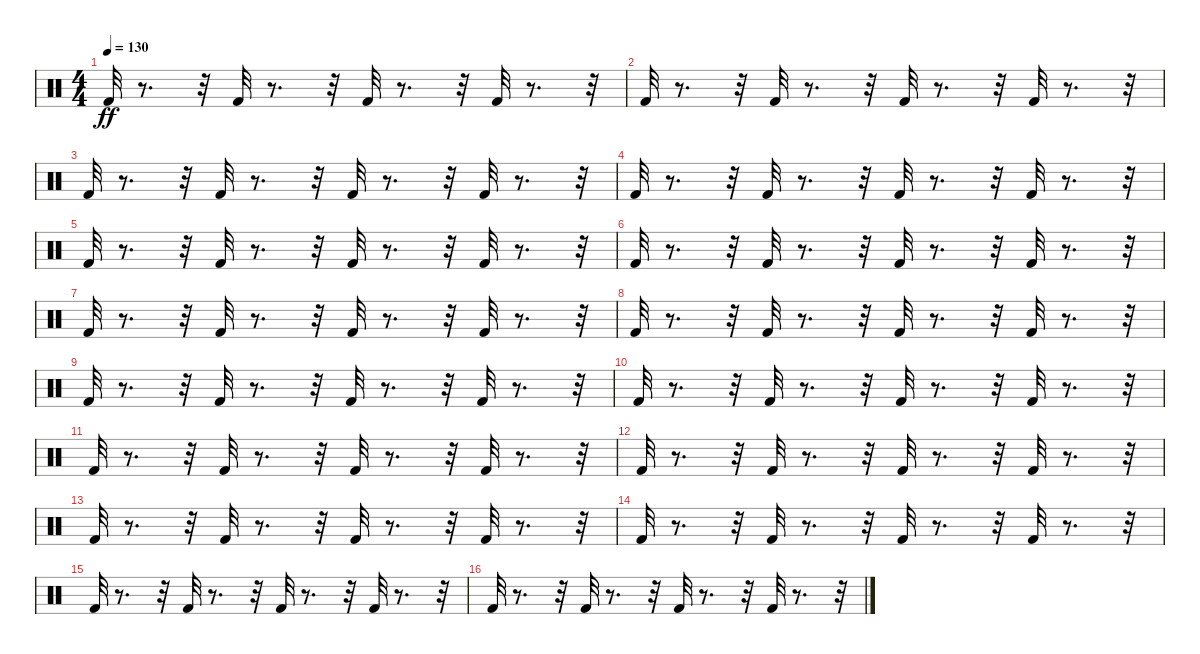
\track "" {instrument percussion}
\staff {score}
\articulation defaults
\ts (4 4)
\tempo 130
\clef neutral
\ks c "Kick (hit) 2".32{dy ff}
r.8{d} r.32 "Kick (hit) 2".32 r.8{d} r.32 "Kick (hit) 2".32 r.8{d} r.32 "Kick (hit) 2".32 r.8{d} r.32 |
"Kick (hit) 2".32 r.8{d} r.32 "Kick (hit) 2".32 r.8{d} r.32 "Kick (hit) 2".32 r.8{d} r.32 "Kick (hit) 2".32 r.8{d} r.32 |
"Kick (hit) 2".32 r.8{d} r.32 "Kick (hit) 2".32 r.8{d} r.32 "Kick (hit) 2".32 r.8{d} r.32 "Kick (hit) 2".32 r.8{d} r.32 |
"Kick (hit) 2".32 r.8{d} r.32 "Kick (hit) 2".32 r.8{d} r.32 "Kick (hit) 2".32 r.8{d} r.32 "Kick (hit) 2".32 r.8{d} r.32 |
"Kick (hit) 2".32 r.8{d} r.32 "Kick (hit) 2".32 r.8{d} r.32 "Kick (hit) 2".32 r.8{d} r.32 "Kick (hit) 2".32 r.8{d} r.32 |
"Kick (hit) 2".32 r.8{d} r.32 "Kick (hit) 2".32 r.8{d} r.32 "Kick (hit) 2".32 r.8{d} r.32 "Kick (hit) 2".32 r.8{d} r.32 |
"Kick (hit) 2".32 r.8{d} r.32 "Kick (hit) 2".32 r.8{d} r.32 "Kick (hit) 2".32 r.8{d} r.32 "Kick (hit) 2".32 r.8{d} r.32 |
"Kick (hit) 2".32 r.8{d} r.32 "Kick (hit) 2".32 r.8{d} r.32 "Kick (hit) 2".32 r.8{d} r.32 "Kick (hit) 2".32 r.8{d} r.32 |
"Kick (hit) 2".32 r.8{d} r.32 "Kick (hit) 2".32 r.8{d} r.32 "Kick (hit) 2".32 r.8{d} r.32 "Kick (hit) 2".32 r.8{d} r.32 |
"Kick (hit) 2".32 r.8{d} r.32 "Kick (hit) 2".32 r.8{d} r.32 "Kick (hit) 2".32 r.8{d} r.32 "Kick (hit) 2".32 r.8{d} r.32 |
"Kick (hit) 2".32 r.8{d} r.32 "Kick (hit) 2".32 r.8{d} r.32 "Kick (hit) 2".32 r.8{d} r.32 "Kick (hit) 2".32 r.8{d} r.32 |
"Kick (hit) 2".32 r.8{d} r.32 "Kick (hit) 2".32 r.8{d} r.32 "Kick (hit) 2".32 r.8{d} r.32 "Kick (hit) 2".32 r.8{d} r.32 |
"Kick (hit) 2".32 r.8{d} r.32 "Kick (hit) 2".32 r.8{d} r.32 "Kick (hit) 2".32 r.8{d} r.32 "Kick (hit) 2".32 r.8{d} r.32 |
"Kick (hit) 2".32 r.8{d} r.32 "Kick (hit) 2".32 r.8{d} r.32 "Kick (hit) 2".32 r.8{d} r.32 "Kick (hit) 2".32 r.8{d} r.32 |
"Kick (hit) 2".32 r.8{d} r.32 "Kick (hit) 2".32 r.8{d} r.32 "Kick (hit) 2".32 r.8{d} r.32 "Kick (hit) 2".32 r.8{d} r.32 |
"Kick (hit) 2".32 r.8{d} r.32 "Kick (hit) 2".32 r.8{d} r.32 "Kick (hit) 2".32 r.8{d} r.32 "Kick (hit) 2".32 r.8{d} r.32
